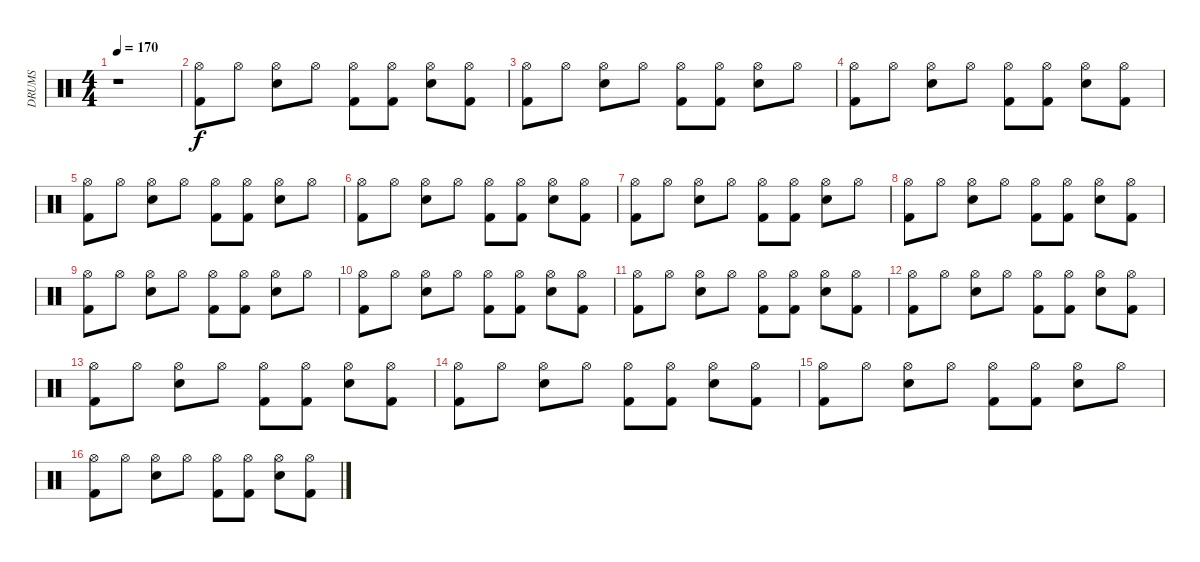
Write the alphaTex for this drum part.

\track ("DRUMS" "DRUMS") {instrument percussion}
\staff {score}
\articulation defaults
\ts (4 4)
\tempo 170
\clef neutral
\ks c
r.1{dy f} |
("Hi-Hat (open)" "Kick (hit) 2").8 "Hi-Hat (open)".8 ("Hi-Hat (open)" "Snare (hit) 2").8 "Hi-Hat (open)".8 ("Hi-Hat (open)" "Kick (hit) 2").8 ("Hi-Hat (open)" "Kick (hit) 2").8 ("Hi-Hat (open)" "Snare (hit) 2").8 ("Hi-Hat (open)" "Kick (hit) 2").8 |
("Hi-Hat (open)" "Kick (hit) 2").8 "Hi-Hat (open)".8 ("Hi-Hat (open)" "Snare (hit) 2").8 "Hi-Hat (open)".8 ("Hi-Hat (open)" "Kick (hit) 2").8 ("Hi-Hat (open)" "Kick (hit) 2").8 ("Hi-Hat (open)" "Snare (hit) 2").8 "Hi-Hat (open)".8 |
("Hi-Hat (open)" "Kick (hit) 2").8 "Hi-Hat (open)".8 ("Hi-Hat (open)" "Snare (hit) 2").8 "Hi-Hat (open)".8 ("Hi-Hat (open)" "Kick (hit) 2").8 ("Hi-Hat (open)" "Kick (hit) 2").8 ("Hi-Hat (open)" "Snare (hit) 2").8 ("Hi-Hat (open)" "Kick (hit) 2").8 |
("Hi-Hat (open)" "Kick (hit) 2").8 "Hi-Hat (open)".8 ("Hi-Hat (open)" "Snare (hit) 2").8 "Hi-Hat (open)".8 ("Hi-Hat (open)" "Kick (hit) 2").8 ("Hi-Hat (open)" "Kick (hit) 2").8 ("Hi-Hat (open)" "Snare (hit) 2").8 "Hi-Hat (open)".8 |
("Hi-Hat (open)" "Kick (hit) 2").8 "Hi-Hat (open)".8 ("Hi-Hat (open)" "Snare (hit) 2").8 "Hi-Hat (open)".8 ("Hi-Hat (open)" "Kick (hit) 2").8 ("Hi-Hat (open)" "Kick (hit) 2").8 ("Hi-Hat (open)" "Snare (hit) 2").8 ("Hi-Hat (open)" "Kick (hit) 2").8 |
("Hi-Hat (open)" "Kick (hit) 2").8 "Hi-Hat (open)".8 ("Hi-Hat (open)" "Snare (hit) 2").8 "Hi-Hat (open)".8 ("Hi-Hat (open)" "Kick (hit) 2").8 ("Hi-Hat (open)" "Kick (hit) 2").8 ("Hi-Hat (open)" "Snare (hit) 2").8 "Hi-Hat (open)".8 |
("Hi-Hat (open)" "Kick (hit) 2").8 "Hi-Hat (open)".8 ("Hi-Hat (open)" "Snare (hit) 2").8 "Hi-Hat (open)".8 ("Hi-Hat (open)" "Kick (hit) 2").8 ("Hi-Hat (open)" "Kick (hit) 2").8 ("Hi-Hat (open)" "Snare (hit) 2").8 ("Hi-Hat (open)" "Kick (hit) 2").8 |
("Hi-Hat (open)" "Kick (hit) 2").8 "Hi-Hat (open)".8 ("Hi-Hat (open)" "Snare (hit) 2").8 "Hi-Hat (open)".8 ("Hi-Hat (open)" "Kick (hit) 2").8 ("Hi-Hat (open)" "Kick (hit) 2").8 ("Hi-Hat (open)" "Snare (hit) 2").8 "Hi-Hat (open)".8 |
("Hi-Hat (open)" "Kick (hit) 2").8 "Hi-Hat (open)".8 ("Hi-Hat (open)" "Snare (hit) 2").8 "Hi-Hat (open)".8 ("Hi-Hat (open)" "Kick (hit) 2").8 ("Hi-Hat (open)" "Kick (hit) 2").8 ("Hi-Hat (open)" "Snare (hit) 2").8 ("Hi-Hat (open)" "Kick (hit) 2").8 |
("Hi-Hat (open)" "Kick (hit) 2").8 "Hi-Hat (open)".8 ("Hi-Hat (open)" "Snare (hit) 2").8 "Hi-Hat (open)".8 ("Hi-Hat (open)" "Kick (hit) 2").8 ("Hi-Hat (open)" "Kick (hit) 2").8 ("Hi-Hat (open)" "Snare (hit) 2").8 ("Hi-Hat (open)" "Kick (hit) 2").8 |
("Hi-Hat (open)" "Kick (hit) 2").8 "Hi-Hat (open)".8 ("Hi-Hat (open)" "Snare (hit) 2").8 "Hi-Hat (open)".8 ("Hi-Hat (open)" "Kick (hit) 2").8 ("Hi-Hat (open)" "Kick (hit) 2").8 ("Hi-Hat (open)" "Snare (hit) 2").8 ("Hi-Hat (open)" "Kick (hit) 2").8 |
("Hi-Hat (open)" "Kick (hit) 2").8 "Hi-Hat (open)".8 ("Hi-Hat (open)" "Snare (hit) 2").8 "Hi-Hat (open)".8 ("Hi-Hat (open)" "Kick (hit) 2").8 ("Hi-Hat (open)" "Kick (hit) 2").8 ("Hi-Hat (open)" "Snare (hit) 2").8 ("Hi-Hat (open)" "Kick (hit) 2").8 |
("Hi-Hat (open)" "Kick (hit) 2").8 "Hi-Hat (open)".8 ("Hi-Hat (open)" "Snare (hit) 2").8 "Hi-Hat (open)".8 ("Hi-Hat (open)" "Kick (hit) 2").8 ("Hi-Hat (open)" "Kick (hit) 2").8 ("Hi-Hat (open)" "Snare (hit) 2").8 ("Hi-Hat (open)" "Kick (hit) 2").8 |
("Hi-Hat (open)" "Kick (hit) 2").8 "Hi-Hat (open)".8 ("Hi-Hat (open)" "Snare (hit) 2").8 "Hi-Hat (open)".8 ("Hi-Hat (open)" "Kick (hit) 2").8 ("Hi-Hat (open)" "Kick (hit) 2").8 ("Hi-Hat (open)" "Snare (hit) 2").8 "Hi-Hat (open)".8 |
("Hi-Hat (open)" "Kick (hit) 2").8 "Hi-Hat (open)".8 ("Hi-Hat (open)" "Snare (hit) 2").8 "Hi-Hat (open)".8 ("Hi-Hat (open)" "Kick (hit) 2").8 ("Hi-Hat (open)" "Kick (hit) 2").8 ("Hi-Hat (open)" "Snare (hit) 2").8 ("Hi-Hat (open)" "Kick (hit) 2").8
